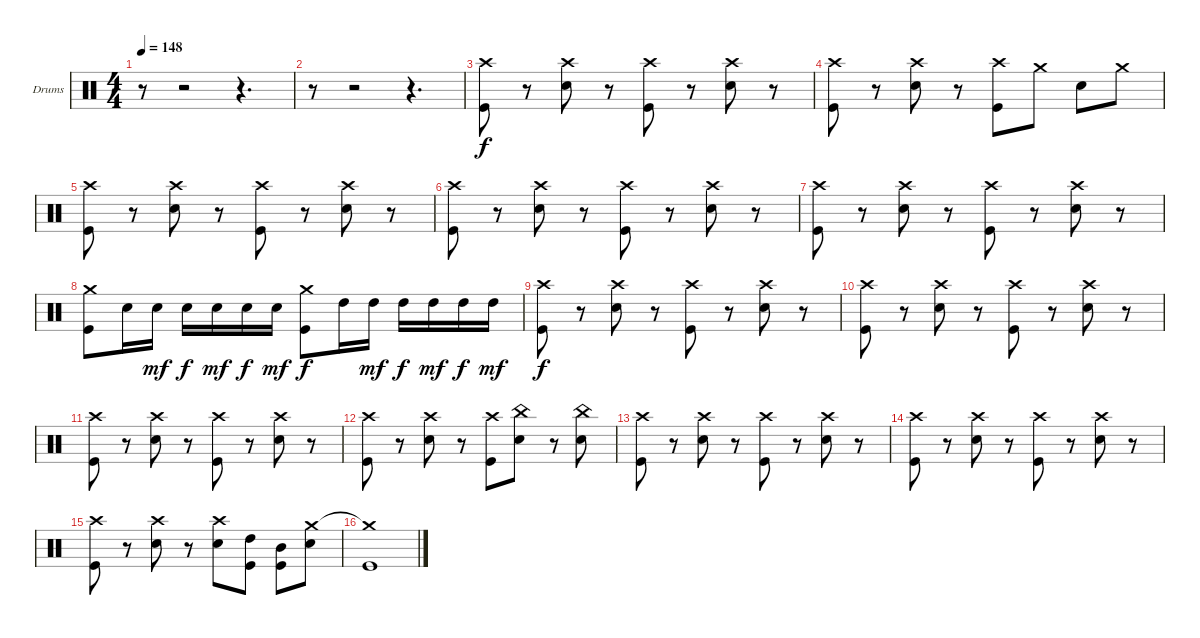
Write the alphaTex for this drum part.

\defaultSystemsLayout 4
\bracketExtendMode groupsimilarinstruments
\firstSystemTrackNameOrientation horizontal
\otherSystemsTrackNameOrientation horizontal
\track ("Drumkit" "Drums") {instrument percussion}
\staff {score}
\articulation defaults
\ts (4 4)
\tempo 148
\clef neutral
\scale
0.333333
\ks c
r.8{dy f} r.2 r.4{d} |
\scale
0.333333 r.8 r.2 r.4{d} |
\scale
0.333333 ("Crash high (hit)" "Kick (hit)").8 r.8 ("Crash high (hit)" "Snare (hit) 2").8 r.8 ("Crash high (hit)" "Kick (hit)").8 r.8 ("Crash high (hit)" "Snare (hit) 2").8 r.8 |
\scale
0.333333 ("Crash high (hit)" "Kick (hit)").8 r.8 ("Crash high (hit)" "Snare (hit) 2").8 r.8 ("Crash high (hit)" "Kick (hit)").8 "Crash medium (hit)".8 "Snare (hit) 2".8 "Crash medium (hit)".8 |
\scale
0.333333 ("Crash high (hit)" "Kick (hit)").8 r.8 ("Crash high (hit)" "Snare (hit) 2").8 r.8 ("Crash high (hit)" "Kick (hit)").8 r.8 ("Crash high (hit)" "Snare (hit) 2").8 r.8 |
\scale
0.333333 ("Crash high (hit)" "Kick (hit)").8 r.8 ("Crash high (hit)" "Snare (hit) 2").8 r.8 ("Crash high (hit)" "Kick (hit)").8 r.8 ("Crash high (hit)" "Snare (hit) 2").8 r.8 |
\scale
0.333333 ("Crash high (hit)" "Kick (hit)").8 r.8 ("Crash high (hit)" "Snare (hit) 2").8 r.8 ("Crash high (hit)" "Kick (hit)").8 r.8 ("Crash high (hit)" "Snare (hit) 2").8 r.8 |
\scale
0.333333 ("Crash medium (hit)" "Kick (hit)").8 "Snare (hit) 2".16 "Snare (hit) 2".16{dy mf} "Snare (hit) 2".16{dy f} "Snare (hit) 2".16{dy mf} "Snare (hit) 2".16{dy f} "Snare (hit) 2".16{dy mf} ("Crash medium (hit)" "Kick (hit)").8{dy f} "High Tom (hit)".16 "High Tom (hit)".16{dy mf} "High Tom (hit)".16{dy f} "High Tom (hit)".16{dy mf} "High Tom (hit)".16{dy f} "High Tom (hit)".16{dy mf} |
\scale
0.333333 ("Crash high (hit)" "Kick (hit)").8{dy f} r.8 ("Crash high (hit)" "Snare (hit) 2").8 r.8 ("Crash high (hit)" "Kick (hit)").8 r.8 ("Crash high (hit)" "Snare (hit) 2").8 r.8 |
\scale
0.333333 ("Crash high (hit)" "Kick (hit)").8 r.8 ("Crash high (hit)" "Snare (hit) 2").8 r.8 ("Crash high (hit)" "Kick (hit)").8 r.8 ("Crash high (hit)" "Snare (hit) 2").8 r.8 |
\scale
0.333333 ("Crash high (hit)" "Kick (hit)").8 r.8 ("Crash high (hit)" "Snare (hit) 2").8 r.8 ("Crash high (hit)" "Kick (hit)").8 r.8 ("Crash high (hit)" "Snare (hit) 2").8 r.8 |
\scale
0.333333 ("Crash high (hit)" "Kick (hit)").8 r.8 ("Crash high (hit)" "Snare (hit) 2").8 r.8 ("Crash high (hit)" "Kick (hit)").8 ("China (hit)" "Snare (hit) 2").8 r.8 ("China (hit)" "Snare (hit) 2").8 |
\scale
0.333333 ("Crash high (hit)" "Kick (hit)").8 r.8 ("Crash high (hit)" "Snare (hit) 2").8 r.8 ("Crash high (hit)" "Kick (hit)").8 r.8 ("Crash high (hit)" "Snare (hit) 2").8 r.8 |
\scale
0.333333 ("Crash high (hit)" "Kick (hit)").8 r.8 ("Crash high (hit)" "Snare (hit) 2").8 r.8 ("Crash high (hit)" "Kick (hit)").8 r.8 ("Crash high (hit)" "Snare (hit) 2").8 r.8 |
\scale
0.333333 ("Crash high (hit)" "Kick (hit)").8 r.8 ("Crash high (hit)" "Snare (hit) 2").8 r.8 ("Crash high (hit)" "Snare (hit) 2").8 ("High Tom (hit)" "Kick (hit)").8 ("Mid Tom (hit)" "Kick (hit)").8 ("Crash medium (hit)" "Snare (hit) 2").8 |
\scale
0.333333 ("Crash medium (hit)"{t} "Kick (hit)").1
